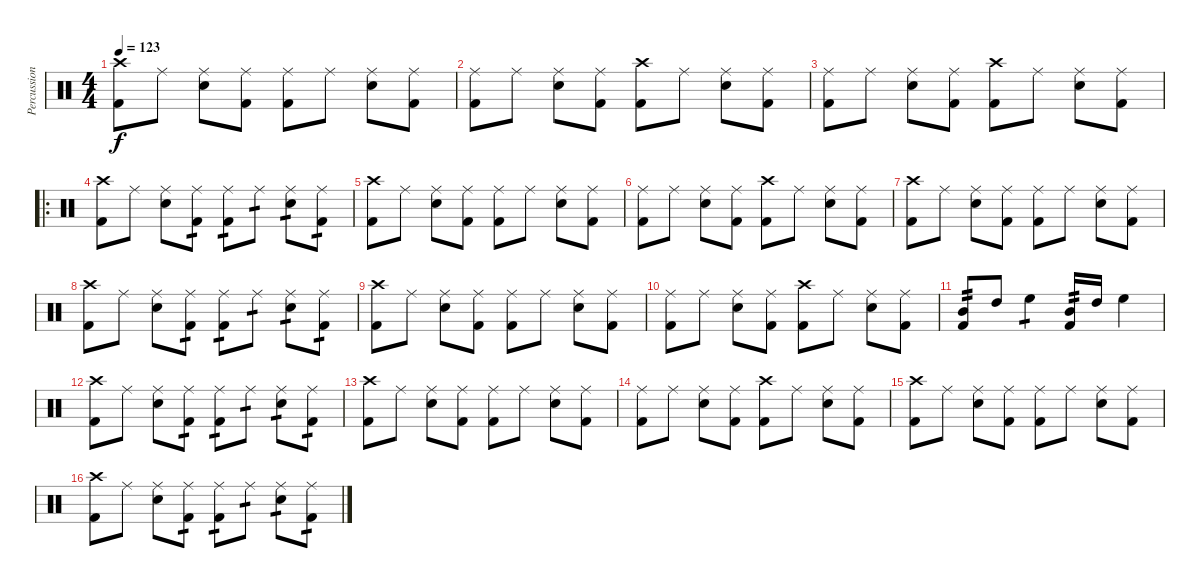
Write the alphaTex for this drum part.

\track ("Percussion" "Percussion") {instrument percussion}
\staff {score}
\articulation defaults
\ts (4 4)
\tempo 123
\clef neutral
\ks c
("Crash high (hit)" "Kick (hit) 2").8{dy f} "Ride (middle)".8 ("Ride (middle)" "Electric Snare (hit)").8 ("Ride (middle)" "Kick (hit) 2").8 ("Ride (middle)" "Kick (hit) 2").8 "Ride (middle)".8 ("Ride (middle)" "Electric Snare (hit)").8 ("Ride (middle)" "Kick (hit) 2").8 |
("Ride (middle)" "Kick (hit) 2").8 "Ride (middle)".8 ("Ride (middle)" "Electric Snare (hit)").8 ("Ride (middle)" "Kick (hit) 2").8 ("Crash high (hit)" "Kick (hit) 2").8 "Ride (middle)".8 ("Ride (middle)" "Electric Snare (hit)").8 ("Ride (middle)" "Kick (hit) 2").8 |
("Ride (middle)" "Kick (hit) 2").8 "Ride (middle)".8 ("Ride (middle)" "Electric Snare (hit)").8 ("Ride (middle)" "Kick (hit) 2").8 ("Crash high (hit)" "Kick (hit) 2").8 "Ride (middle)".8 ("Ride (middle)" "Electric Snare (hit)").8 ("Ride (middle)" "Kick (hit) 2").8 |
\ro
("Crash high (hit)" "Kick (hit) 2").8 "Ride (middle)".8 ("Ride (middle)" "Electric Snare (hit)").8 ("Ride (middle)" "Kick (hit) 2").8{tp 1} ("Ride (middle)" "Kick (hit) 2").8{tp 1} "Ride (middle)".8{tp 1} ("Ride (middle)" "Electric Snare (hit)").8{tp 1} ("Ride (middle)" "Kick (hit) 2").8{tp 1} |
("Crash high (hit)" "Kick (hit) 2").8 "Ride (middle)".8 ("Ride (middle)" "Electric Snare (hit)").8 ("Ride (middle)" "Kick (hit) 2").8 ("Ride (middle)" "Kick (hit) 2").8 "Ride (middle)".8 ("Ride (middle)" "Electric Snare (hit)").8 ("Ride (middle)" "Kick (hit) 2").8 |
("Ride (middle)" "Kick (hit) 2").8 "Ride (middle)".8 ("Ride (middle)" "Electric Snare (hit)").8 ("Ride (middle)" "Kick (hit) 2").8 ("Crash high (hit)" "Kick (hit) 2").8 "Ride (middle)".8 ("Ride (middle)" "Electric Snare (hit)").8 ("Ride (middle)" "Kick (hit) 2").8 |
("Crash high (hit)" "Kick (hit) 2").8 "Ride (middle)".8 ("Ride (middle)" "Electric Snare (hit)").8 ("Ride (middle)" "Kick (hit) 2").8 ("Ride (middle)" "Kick (hit) 2").8 "Ride (middle)".8 ("Ride (middle)" "Electric Snare (hit)").8 ("Ride (middle)" "Kick (hit) 2").8 |
("Crash high (hit)" "Kick (hit) 2").8 "Ride (middle)".8 ("Ride (middle)" "Electric Snare (hit)").8 ("Ride (middle)" "Kick (hit) 2").8{tp 1} ("Ride (middle)" "Kick (hit) 2").8{tp 1} "Ride (middle)".8{tp 1} ("Ride (middle)" "Electric Snare (hit)").8{tp 1} ("Ride (middle)" "Kick (hit) 2").8{tp 1} |
("Crash high (hit)" "Kick (hit) 2").8 "Ride (middle)".8 ("Ride (middle)" "Electric Snare (hit)").8 ("Ride (middle)" "Kick (hit) 2").8 ("Ride (middle)" "Kick (hit) 2").8 "Ride (middle)".8 ("Ride (middle)" "Electric Snare (hit)").8 ("Ride (middle)" "Kick (hit) 2").8 |
("Ride (middle)" "Kick (hit) 2").8 "Ride (middle)".8 ("Ride (middle)" "Electric Snare (hit)").8 ("Ride (middle)" "Kick (hit) 2").8 ("Crash high (hit)" "Kick (hit) 2").8 "Ride (middle)".8 ("Ride (middle)" "Electric Snare (hit)").8 ("Ride (middle)" "Kick (hit) 2").8 |
("Mid Tom (hit)" "Kick (hit) 2").8{tp 2} "High Tom (hit)".8 "High Floor Tom (hit)".4{tp 1} ("Mid Tom (hit)" "Kick (hit) 2").16{tp 2} "High Tom (hit)".16 "High Floor Tom (hit)".4 |
("Crash high (hit)" "Kick (hit) 2").8 "Ride (middle)".8 ("Ride (middle)" "Electric Snare (hit)").8 ("Ride (middle)" "Kick (hit) 2").8{tp 1} ("Ride (middle)" "Kick (hit) 2").8{tp 1} "Ride (middle)".8{tp 1} ("Ride (middle)" "Electric Snare (hit)").8{tp 1} ("Ride (middle)" "Kick (hit) 2").8{tp 1} |
("Crash high (hit)" "Kick (hit) 2").8 "Ride (middle)".8 ("Ride (middle)" "Electric Snare (hit)").8 ("Ride (middle)" "Kick (hit) 2").8 ("Ride (middle)" "Kick (hit) 2").8 "Ride (middle)".8 ("Ride (middle)" "Electric Snare (hit)").8 ("Ride (middle)" "Kick (hit) 2").8 |
("Ride (middle)" "Kick (hit) 2").8 "Ride (middle)".8 ("Ride (middle)" "Electric Snare (hit)").8 ("Ride (middle)" "Kick (hit) 2").8 ("Crash high (hit)" "Kick (hit) 2").8 "Ride (middle)".8 ("Ride (middle)" "Electric Snare (hit)").8 ("Ride (middle)" "Kick (hit) 2").8 |
("Crash high (hit)" "Kick (hit) 2").8 "Ride (middle)".8 ("Ride (middle)" "Electric Snare (hit)").8 ("Ride (middle)" "Kick (hit) 2").8 ("Ride (middle)" "Kick (hit) 2").8 "Ride (middle)".8 ("Ride (middle)" "Electric Snare (hit)").8 ("Ride (middle)" "Kick (hit) 2").8 |
("Crash high (hit)" "Kick (hit) 2").8 "Ride (middle)".8 ("Ride (middle)" "Electric Snare (hit)").8 ("Ride (middle)" "Kick (hit) 2").8{tp 1} ("Ride (middle)" "Kick (hit) 2").8{tp 1} "Ride (middle)".8{tp 1} ("Ride (middle)" "Electric Snare (hit)").8{tp 1} ("Ride (middle)" "Kick (hit) 2").8{tp 1}
